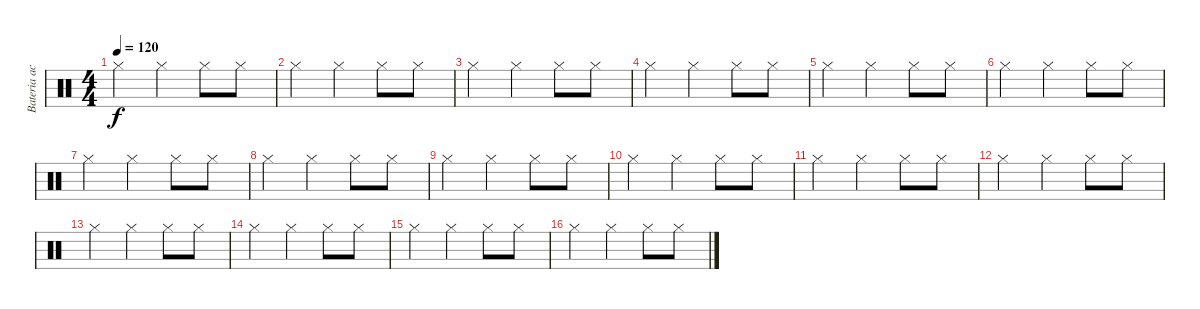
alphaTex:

\track ("Bateria acompanhamento" "Bateria ac") {instrument percussion}
\staff {score}
\articulation defaults
\ts (4 4)
\tempo 120
\clef neutral
\ks c "Hi-Hat (closed)".4{dy f} "Hi-Hat (closed)".4 "Hi-Hat (closed)".8 "Hi-Hat (closed)".8
|
"Hi-Hat (closed)".4 "Hi-Hat (closed)".4 "Hi-Hat (closed)".8 "Hi-Hat (closed)".8 |
"Hi-Hat (closed)".4 "Hi-Hat (closed)".4 "Hi-Hat (closed)".8 "Hi-Hat (closed)".8 |
"Hi-Hat (closed)".4 "Hi-Hat (closed)".4 "Hi-Hat (closed)".8 "Hi-Hat (closed)".8 |
"Hi-Hat (closed)".4 "Hi-Hat (closed)".4 "Hi-Hat (closed)".8 "Hi-Hat (closed)".8 |
"Hi-Hat (closed)".4 "Hi-Hat (closed)".4 "Hi-Hat (closed)".8 "Hi-Hat (closed)".8 |
"Hi-Hat (closed)".4 "Hi-Hat (closed)".4 "Hi-Hat (closed)".8 "Hi-Hat (closed)".8 |
"Hi-Hat (closed)".4 "Hi-Hat (closed)".4 "Hi-Hat (closed)".8 "Hi-Hat (closed)".8 |
"Hi-Hat (closed)".4 "Hi-Hat (closed)".4 "Hi-Hat (closed)".8 "Hi-Hat (closed)".8 |
"Hi-Hat (closed)".4 "Hi-Hat (closed)".4 "Hi-Hat (closed)".8 "Hi-Hat (closed)".8 |
"Hi-Hat (closed)".4 "Hi-Hat (closed)".4 "Hi-Hat (closed)".8 "Hi-Hat (closed)".8 |
"Hi-Hat (closed)".4 "Hi-Hat (closed)".4 "Hi-Hat (closed)".8 "Hi-Hat (closed)".8 |
"Hi-Hat (closed)".4 "Hi-Hat (closed)".4 "Hi-Hat (closed)".8 "Hi-Hat (closed)".8 |
"Hi-Hat (closed)".4 "Hi-Hat (closed)".4 "Hi-Hat (closed)".8 "Hi-Hat (closed)".8 |
"Hi-Hat (closed)".4 "Hi-Hat (closed)".4 "Hi-Hat (closed)".8 "Hi-Hat (closed)".8 |
"Hi-Hat (closed)".4 "Hi-Hat (closed)".4 "Hi-Hat (closed)".8 "Hi-Hat (closed)".8
